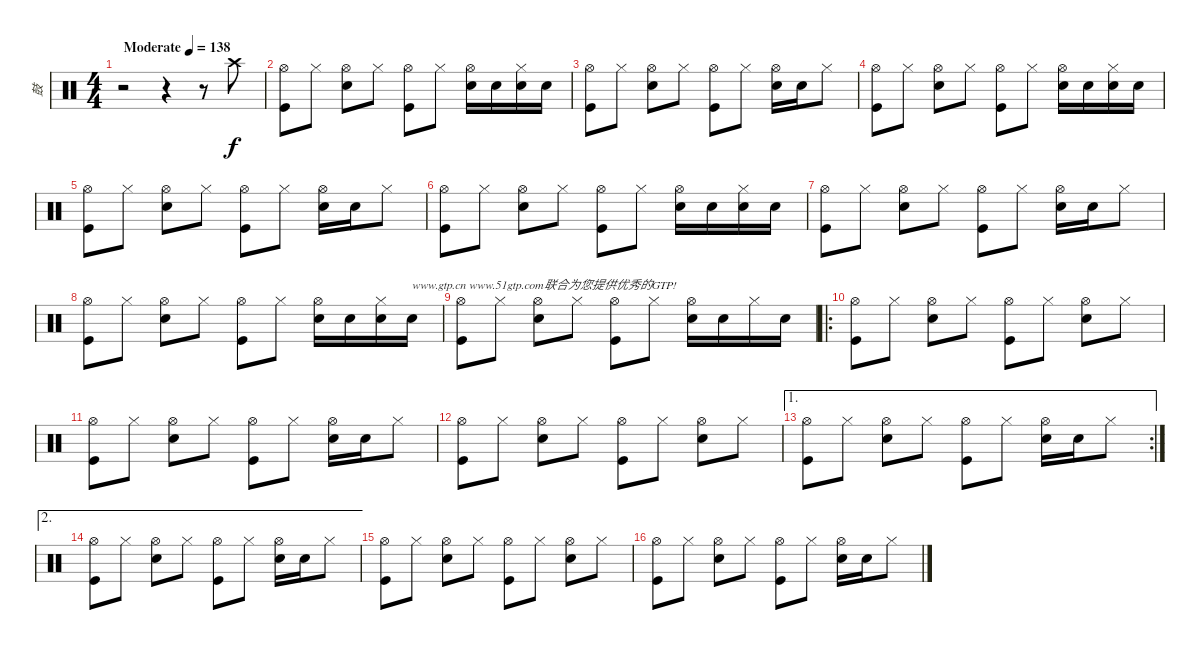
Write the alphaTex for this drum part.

\track ("鼓" "鼓") {instrument percussion}
\staff {score}
\articulation defaults
\ts (4 4)
\tempo (138 "Moderate")
\clef neutral
\ks c
r.2{dy f} r.4 r.8 "Crash high (hit)".8 |
("Hi-Hat (open)" "Kick (hit)").8 "Hi-Hat (closed)".8 ("Hi-Hat (open)" "Snare (hit) 2").8 "Hi-Hat (closed)".8 ("Hi-Hat (open)" "Kick (hit)").8 "Hi-Hat (closed)".8 ("Hi-Hat (open)" "Snare (hit) 2").16 "Snare (hit) 2".16 ("Hi-Hat (closed)" "Snare (hit) 2").16 "Snare (hit) 2".16 |
("Hi-Hat (open)" "Kick (hit)").8 "Hi-Hat (closed)".8 ("Hi-Hat (open)" "Snare (hit) 2").8 "Hi-Hat (closed)".8 ("Hi-Hat (open)" "Kick (hit)").8 "Hi-Hat (closed)".8 ("Hi-Hat (open)" "Snare (hit) 2").16 "Snare (hit) 2".16 "Hi-Hat (closed)".8 |
("Hi-Hat (open)" "Kick (hit)").8 "Hi-Hat (closed)".8 ("Hi-Hat (open)" "Snare (hit) 2").8 "Hi-Hat (closed)".8 ("Hi-Hat (open)" "Kick (hit)").8 "Hi-Hat (closed)".8 ("Hi-Hat (open)" "Snare (hit) 2").16 "Snare (hit) 2".16 ("Hi-Hat (closed)" "Snare (hit) 2").16 "Snare (hit) 2".16 |
("Hi-Hat (open)" "Kick (hit)").8 "Hi-Hat (closed)".8 ("Hi-Hat (open)" "Snare (hit) 2").8 "Hi-Hat (closed)".8 ("Hi-Hat (open)" "Kick (hit)").8 "Hi-Hat (closed)".8 ("Hi-Hat (open)" "Snare (hit) 2").16 "Snare (hit) 2".16 "Hi-Hat (closed)".8 |
("Hi-Hat (open)" "Kick (hit)").8 "Hi-Hat (closed)".8 ("Hi-Hat (open)" "Snare (hit) 2").8 "Hi-Hat (closed)".8 ("Hi-Hat (open)" "Kick (hit)").8 "Hi-Hat (closed)".8 ("Hi-Hat (open)" "Snare (hit) 2").16 "Snare (hit) 2".16 ("Hi-Hat (closed)" "Snare (hit) 2").16 "Snare (hit) 2".16 |
("Hi-Hat (open)" "Kick (hit)").8 "Hi-Hat (closed)".8 ("Hi-Hat (open)" "Snare (hit) 2").8 "Hi-Hat (closed)".8 ("Hi-Hat (open)" "Kick (hit)").8 "Hi-Hat (closed)".8 ("Hi-Hat (open)" "Snare (hit) 2").16 "Snare (hit) 2".16 "Hi-Hat (closed)".8 |
("Hi-Hat (open)" "Kick (hit)").8 "Hi-Hat (closed)".8 ("Hi-Hat (open)" "Snare (hit) 2").8 "Hi-Hat (closed)".8 ("Hi-Hat (open)" "Kick (hit)").8 "Hi-Hat (closed)".8 ("Hi-Hat (open)" "Snare (hit) 2").16 "Snare (hit) 2".16 ("Hi-Hat (closed)" "Snare (hit) 2").16 "Snare (hit) 2".16{txt "www.gtp.cn www.51gtp.com联合为您提供优秀的GTP!"} |
("Hi-Hat (open)" "Kick (hit)").8 "Hi-Hat (closed)".8 ("Hi-Hat (open)" "Snare (hit) 2").8 "Hi-Hat (closed)".8 ("Hi-Hat (open)" "Kick (hit)").8 "Hi-Hat (closed)".8 ("Hi-Hat (open)" "Snare (hit) 2").16 "Snare (hit) 2".16 "Hi-Hat (closed)".16 "Snare (hit) 2".16 |
\ro
("Hi-Hat (open)" "Kick (hit)").8 "Hi-Hat (closed)".8 ("Hi-Hat (open)" "Snare (hit) 2").8 "Hi-Hat (closed)".8 ("Hi-Hat (open)" "Kick (hit)").8 "Hi-Hat (closed)".8 ("Hi-Hat (open)" "Snare (hit) 2").8 "Hi-Hat (closed)".8 |
("Hi-Hat (open)" "Kick (hit)").8 "Hi-Hat (closed)".8 ("Hi-Hat (open)" "Snare (hit) 2").8 "Hi-Hat (closed)".8 ("Hi-Hat (open)" "Kick (hit)").8 "Hi-Hat (closed)".8 ("Hi-Hat (open)" "Snare (hit) 2").16 "Snare (hit) 2".16 "Hi-Hat (closed)".8 |
("Hi-Hat (open)" "Kick (hit)").8 "Hi-Hat (closed)".8 ("Hi-Hat (open)" "Snare (hit) 2").8 "Hi-Hat (closed)".8 ("Hi-Hat (open)" "Kick (hit)").8 "Hi-Hat (closed)".8 ("Hi-Hat (open)" "Snare (hit) 2").8 "Hi-Hat (closed)".8 |
\ae 1
\rc 2
("Hi-Hat (open)" "Kick (hit)").8 "Hi-Hat (closed)".8 ("Hi-Hat (open)" "Snare (hit) 2").8 "Hi-Hat (closed)".8 ("Hi-Hat (open)" "Kick (hit)").8 "Hi-Hat (closed)".8 ("Hi-Hat (open)" "Snare (hit) 2").16 "Snare (hit) 2".16 "Hi-Hat (closed)".8 |
\ae 2
("Hi-Hat (open)" "Kick (hit)").8 "Hi-Hat (closed)".8 ("Hi-Hat (open)" "Snare (hit) 2").8 "Hi-Hat (closed)".8 ("Hi-Hat (open)" "Kick (hit)").8 "Hi-Hat (closed)".8 ("Hi-Hat (open)" "Snare (hit) 2").16 "Snare (hit) 2".16 "Hi-Hat (closed)".8 |
("Hi-Hat (open)" "Kick (hit)").8 "Hi-Hat (closed)".8 ("Hi-Hat (open)" "Snare (hit) 2").8 "Hi-Hat (closed)".8 ("Hi-Hat (open)" "Kick (hit)").8 "Hi-Hat (closed)".8 ("Hi-Hat (open)" "Snare (hit) 2").8 "Hi-Hat (closed)".8 |
("Hi-Hat (open)" "Kick (hit)").8 "Hi-Hat (closed)".8 ("Hi-Hat (open)" "Snare (hit) 2").8 "Hi-Hat (closed)".8 ("Hi-Hat (open)" "Kick (hit)").8 "Hi-Hat (closed)".8 ("Hi-Hat (open)" "Snare (hit) 2").16 "Snare (hit) 2".16 "Hi-Hat (closed)".8
